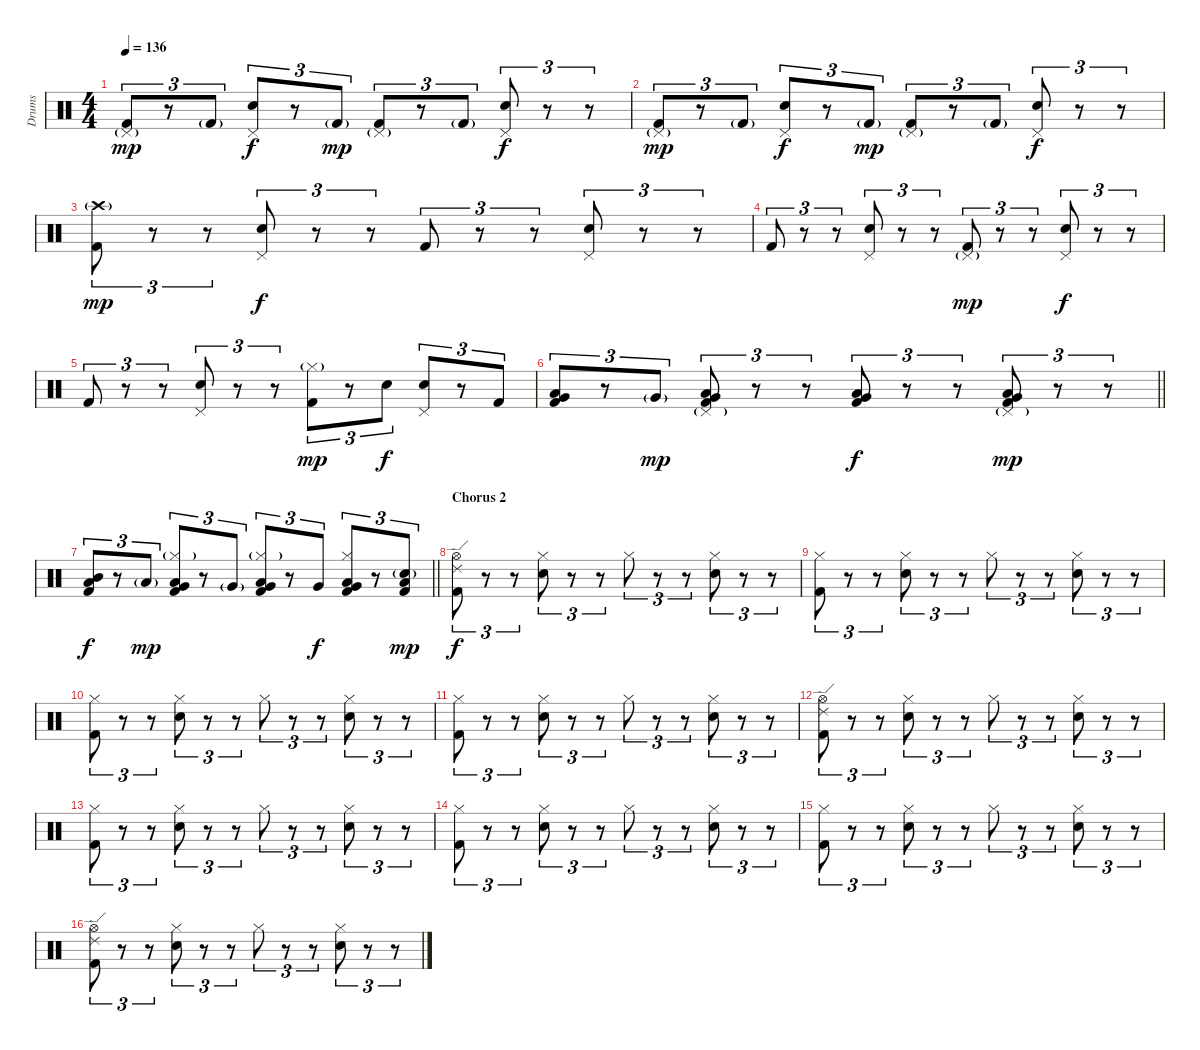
\track ("Drums" "Drums") {instrument percussion}
\staff {score}
\articulation defaults
\ts (4 4)
\tempo 136
\clef neutral
\ks c
("Pedal Hi-Hat (hit)"{g} "Kick (hit) 2").8{tu (3 2) dy mp} r.8{tu (3 2)} "Kick (hit) 2"{g}.8{tu (3 2)} ("Pedal Hi-Hat (hit)" "Snare (hit) 2").8{tu (3 2) dy f} r.8{tu (3 2)} "Kick (hit) 2"{g}.8{tu (3 2) dy mp} ("Pedal Hi-Hat (hit)"{g} "Kick (hit) 2").8{tu (3 2)} r.8{tu (3 2)} "Kick (hit) 2"{g}.8{tu (3 2)} ("Pedal Hi-Hat (hit)" "Snare (hit) 2").8{tu (3 2) dy f} r.8{tu (3 2)} r.8{tu (3 2)} |
("Pedal Hi-Hat (hit)"{g} "Kick (hit) 2").8{tu (3 2) dy mp} r.8{tu (3 2)} "Kick (hit) 2"{g}.8{tu (3 2)} ("Pedal Hi-Hat (hit)" "Snare (hit) 2").8{tu (3 2) dy f} r.8{tu (3 2)} "Kick (hit) 2"{g}.8{tu (3 2) dy mp} ("Pedal Hi-Hat (hit)"{g} "Kick (hit) 2").8{tu (3 2)} r.8{tu (3 2)} "Kick (hit) 2"{g}.8{tu (3 2)} ("Pedal Hi-Hat (hit)" "Snare (hit) 2").8{tu (3 2) dy f} r.8{tu (3 2)} r.8{tu (3 2)} |
("Crash high (hit)"{g} "Kick (hit) 2").8{tu (3 2) dy mp} r.8{tu (3 2)} r.8{tu (3 2)} ("Pedal Hi-Hat (hit)" "Snare (hit) 2").8{tu (3 2) dy f} r.8{tu (3 2)} r.8{tu (3 2)} "Kick (hit) 2".8{tu (3 2)} r.8{tu (3 2)} r.8{tu (3 2)} ("Pedal Hi-Hat (hit)" "Snare (hit) 2").8{tu (3 2)} r.8{tu (3 2)} r.8{tu (3 2)} |
"Kick (hit) 2".8{tu (3 2)} r.8{tu (3 2)} r.8{tu (3 2)} ("Pedal Hi-Hat (hit)" "Snare (hit) 2").8{tu (3 2)} r.8{tu (3 2)} r.8{tu (3 2)} ("Pedal Hi-Hat (hit)"{g} "Kick (hit) 2").8{tu (3 2) dy mp} r.8{tu (3 2)} r.8{tu (3 2)} ("Pedal Hi-Hat (hit)" "Snare (hit) 2").8{tu (3 2) dy f} r.8{tu (3 2)} r.8{tu (3 2)} |
"Kick (hit) 2".8{tu (3 2)} r.8{tu (3 2)} r.8{tu (3 2)} ("Pedal Hi-Hat (hit)" "Snare (hit) 2").8{tu (3 2)} r.8{tu (3 2)} r.8{tu (3 2)} ("Hi-Hat (closed)"{g} "Kick (hit) 2").8{tu (3 2) dy mp} r.8{tu (3 2)} "Snare (hit) 2".8{tu (3 2) dy f} ("Pedal Hi-Hat (hit)" "Snare (hit) 2").8{tu (3 2)} r.8{tu (3 2)} "Kick (hit) 2".8{tu (3 2)} |
\barLineRight lightlight
("Low Tom (hit)" "Very Low Tom (hit)" "Kick (hit) 2").8{tu (3 2)} r.8{tu (3 2)} "Very Low Tom (hit)"{g}.8{tu (3 2) dy mp} ("Pedal Hi-Hat (hit)"{g} "Low Tom (hit)" "Very Low Tom (hit)" "Kick (hit) 2").8{tu (3 2)} r.8{tu (3 2)} r.8{tu (3 2)} ("Very Low Tom (hit)" "Low Floor Tom (hit)" "Kick (hit) 2").8{tu (3 2) dy f} r.8{tu (3 2)} r.8{tu (3 2)} ("Pedal Hi-Hat (hit)"{g} "Low Tom (hit)" "Very Low Tom (hit)" "Kick (hit) 2").8{tu (3 2) dy mp} r.8{tu (3 2)} r.8{tu (3 2)} |
\barLineRight lightlight
("Mid Tom (hit)" "Low Tom (hit)" "Kick (hit) 2").8{tu (3 2) dy f} r.8{tu (3 2)} "Low Tom (hit)"{g}.8{tu (3 2) dy mp} ("Hi-Hat (closed)"{g} "Low Tom (hit)" "Very Low Tom (hit)" "Kick (hit) 2").8{tu (3 2)} r.8{tu (3 2)} "Very Low Tom (hit)"{g}.8{tu (3 2)} ("Hi-Hat (closed)"{g} "Very Low Tom (hit)" "Low Floor Tom (hit)" "Kick (hit) 2").8{tu (3 2)} r.8{tu (3 2)} "Very Low Tom (hit)".8{tu (3 2) dy f} ("Hi-Hat (closed)" "Low Tom (hit)" "Very Low Tom (hit)" "Kick (hit) 2").8{tu (3 2)} r.8{tu (3 2)} ("Low Floor Tom (hit)" "Snare (hit) 2"{g} "Kick (hit) 2").8{tu (3 2) dy mp} |
\section ("" "Chorus 2")
("Ride (edge) 2" "Hi-Hat (open)" "Kick (hit) 2").8{tu (3 2) dy f} r.8{tu (3 2)} r.8{tu (3 2)} ("Hi-Hat (closed)" "Snare (hit) 2").8{tu (3 2)} r.8{tu (3 2)} r.8{tu (3 2)} "Hi-Hat (closed)".8{tu (3 2)} r.8{tu (3 2)} r.8{tu (3 2)} ("Hi-Hat (closed)" "Snare (hit) 2").8{tu (3 2)} r.8{tu (3 2)} r.8{tu (3 2)} |
("Hi-Hat (closed)" "Kick (hit) 2").8{tu (3 2)} r.8{tu (3 2)} r.8{tu (3 2)} ("Hi-Hat (closed)" "Snare (hit) 2").8{tu (3 2)} r.8{tu (3 2)} r.8{tu (3 2)} "Hi-Hat (closed)".8{tu (3 2)} r.8{tu (3 2)} r.8{tu (3 2)} ("Hi-Hat (closed)" "Snare (hit) 2").8{tu (3 2)} r.8{tu (3 2)} r.8{tu (3 2)} |
("Hi-Hat (closed)" "Kick (hit) 2").8{tu (3 2)} r.8{tu (3 2)} r.8{tu (3 2)} ("Hi-Hat (closed)" "Snare (hit) 2").8{tu (3 2)} r.8{tu (3 2)} r.8{tu (3 2)} "Hi-Hat (closed)".8{tu (3 2)} r.8{tu (3 2)} r.8{tu (3 2)} ("Hi-Hat (closed)" "Snare (hit) 2").8{tu (3 2)} r.8{tu (3 2)} r.8{tu (3 2)} |
("Hi-Hat (closed)" "Kick (hit) 2").8{tu (3 2)} r.8{tu (3 2)} r.8{tu (3 2)} ("Hi-Hat (closed)" "Snare (hit) 2").8{tu (3 2)} r.8{tu (3 2)} r.8{tu (3 2)} "Hi-Hat (closed)".8{tu (3 2)} r.8{tu (3 2)} r.8{tu (3 2)} ("Hi-Hat (closed)" "Snare (hit) 2").8{tu (3 2)} r.8{tu (3 2)} r.8{tu (3 2)} |
("Ride (edge) 2" "Hi-Hat (open)" "Kick (hit) 2").8{tu (3 2)} r.8{tu (3 2)} r.8{tu (3 2)} ("Hi-Hat (closed)" "Snare (hit) 2").8{tu (3 2)} r.8{tu (3 2)} r.8{tu (3 2)} "Hi-Hat (closed)".8{tu (3 2)} r.8{tu (3 2)} r.8{tu (3 2)} ("Hi-Hat (closed)" "Snare (hit) 2").8{tu (3 2)} r.8{tu (3 2)} r.8{tu (3 2)} |
("Hi-Hat (closed)" "Kick (hit) 2").8{tu (3 2)} r.8{tu (3 2)} r.8{tu (3 2)} ("Hi-Hat (closed)" "Snare (hit) 2").8{tu (3 2)} r.8{tu (3 2)} r.8{tu (3 2)} "Hi-Hat (closed)".8{tu (3 2)} r.8{tu (3 2)} r.8{tu (3 2)} ("Hi-Hat (closed)" "Snare (hit) 2").8{tu (3 2)} r.8{tu (3 2)} r.8{tu (3 2)} |
("Hi-Hat (closed)" "Kick (hit) 2").8{tu (3 2)} r.8{tu (3 2)} r.8{tu (3 2)} ("Hi-Hat (closed)" "Snare (hit) 2").8{tu (3 2)} r.8{tu (3 2)} r.8{tu (3 2)} "Hi-Hat (closed)".8{tu (3 2)} r.8{tu (3 2)} r.8{tu (3 2)} ("Hi-Hat (closed)" "Snare (hit) 2").8{tu (3 2)} r.8{tu (3 2)} r.8{tu (3 2)} |
("Hi-Hat (closed)" "Kick (hit) 2").8{tu (3 2)} r.8{tu (3 2)} r.8{tu (3 2)} ("Hi-Hat (closed)" "Snare (hit) 2").8{tu (3 2)} r.8{tu (3 2)} r.8{tu (3 2)} "Hi-Hat (closed)".8{tu (3 2)} r.8{tu (3 2)} r.8{tu (3 2)} ("Hi-Hat (closed)" "Snare (hit) 2").8{tu (3 2)} r.8{tu (3 2)} r.8{tu (3 2)} |
("Ride (edge) 2" "Hi-Hat (open)" "Kick (hit) 2").8{tu (3 2)} r.8{tu (3 2)} r.8{tu (3 2)} ("Hi-Hat (closed)" "Snare (hit) 2").8{tu (3 2)} r.8{tu (3 2)} r.8{tu (3 2)} "Hi-Hat (closed)".8{tu (3 2)} r.8{tu (3 2)} r.8{tu (3 2)} ("Hi-Hat (closed)" "Snare (hit) 2").8{tu (3 2)} r.8{tu (3 2)} r.8{tu (3 2)}
